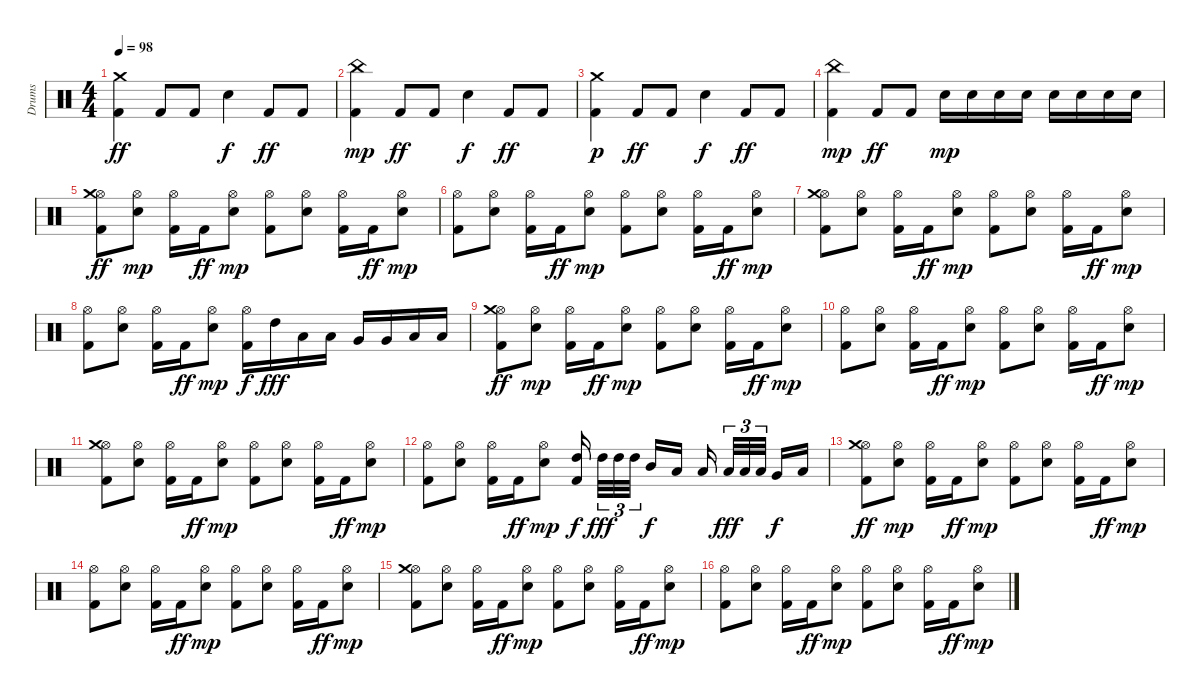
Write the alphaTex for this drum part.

\track ("Drums" "Drums") {instrument percussion}
\staff {score}
\articulation defaults
\ts (4 4)
\tempo 98
\clef neutral
\ks c
("Kick (hit) 2" "Crash medium (hit)").4{dy ff} "Kick (hit) 2".8 "Kick (hit) 2".8 "Snare (hit) 2".4{dy f} "Kick (hit) 2".8{dy ff} "Kick (hit) 2".8 |
("Kick (hit) 2" "China (hit)").4{dy mp} "Kick (hit) 2".8{dy ff} "Kick (hit) 2".8 "Snare (hit) 2".4{dy f} "Kick (hit) 2".8{dy ff} "Kick (hit) 2".8 |
("Kick (hit) 2" "Crash medium (hit)").4{dy p} "Kick (hit) 2".8{dy ff} "Kick (hit) 2".8 "Snare (hit) 2".4{dy f} "Kick (hit) 2".8{dy ff} "Kick (hit) 2".8 |
("Kick (hit) 2" "China (hit)").4{dy mp} "Kick (hit) 2".8{dy ff} "Kick (hit) 2".8 "Snare (hit) 2".16{dy mp} "Snare (hit) 2".16 "Snare (hit) 2".16 "Snare (hit) 2".16 "Snare (hit) 2".16 "Snare (hit) 2".16 "Snare (hit) 2".16 "Snare (hit) 2".16 |
("Kick (hit) 2" "Hi-Hat (open)" "Crash medium (hit)").8{dy ff} ("Hi-Hat (open)" "Snare (hit) 2").8{dy mp} ("Kick (hit) 2" "Hi-Hat (open)").16 "Kick (hit) 2".16{dy ff} ("Hi-Hat (open)" "Snare (hit) 2").8{dy mp} ("Kick (hit) 2" "Hi-Hat (open)").8 ("Hi-Hat (open)" "Snare (hit) 2").8 ("Kick (hit) 2" "Hi-Hat (open)").16 "Kick (hit) 2".16{dy ff} ("Hi-Hat (open)" "Snare (hit) 2").8{dy mp} |
("Kick (hit) 2" "Hi-Hat (open)").8 ("Hi-Hat (open)" "Snare (hit) 2").8 ("Kick (hit) 2" "Hi-Hat (open)").16 "Kick (hit) 2".16{dy ff} ("Hi-Hat (open)" "Snare (hit) 2").8{dy mp} ("Kick (hit) 2" "Hi-Hat (open)").8 ("Hi-Hat (open)" "Snare (hit) 2").8 ("Kick (hit) 2" "Hi-Hat (open)").16 "Kick (hit) 2".16{dy ff} ("Hi-Hat (open)" "Snare (hit) 2").8{dy mp} |
("Kick (hit) 2" "Hi-Hat (open)" "Crash medium (hit)").8 ("Hi-Hat (open)" "Snare (hit) 2").8 ("Kick (hit) 2" "Hi-Hat (open)").16 "Kick (hit) 2".16{dy ff} ("Hi-Hat (open)" "Snare (hit) 2").8{dy mp} ("Kick (hit) 2" "Hi-Hat (open)").8 ("Hi-Hat (open)" "Snare (hit) 2").8 ("Kick (hit) 2" "Hi-Hat (open)").16 "Kick (hit) 2".16{dy ff} ("Hi-Hat (open)" "Snare (hit) 2").8{dy mp} |
("Kick (hit) 2" "Hi-Hat (open)").8 ("Hi-Hat (open)" "Snare (hit) 2").8 ("Kick (hit) 2" "Hi-Hat (open)").16 "Kick (hit) 2".16{dy ff} ("Hi-Hat (open)" "Snare (hit) 2").8{dy mp} ("Kick (hit) 2" "Hi-Hat (open)").16{dy f} "High Tom (hit)".16{dy fff} "Low Tom (hit)".16 "Low Tom (hit)".16 "Very Low Tom (hit)".16 "Very Low Tom (hit)".16 "Low Floor Tom (hit)".16 "Low Floor Tom (hit)".16 |
("Kick (hit) 2" "Hi-Hat (open)" "Crash medium (hit)").8{dy ff} ("Hi-Hat (open)" "Snare (hit) 2").8{dy mp} ("Kick (hit) 2" "Hi-Hat (open)").16 "Kick (hit) 2".16{dy ff} ("Hi-Hat (open)" "Snare (hit) 2").8{dy mp} ("Kick (hit) 2" "Hi-Hat (open)").8 ("Hi-Hat (open)" "Snare (hit) 2").8 ("Kick (hit) 2" "Hi-Hat (open)").16 "Kick (hit) 2".16{dy ff} ("Hi-Hat (open)" "Snare (hit) 2").8{dy mp} |
("Kick (hit) 2" "Hi-Hat (open)").8 ("Hi-Hat (open)" "Snare (hit) 2").8 ("Kick (hit) 2" "Hi-Hat (open)").16 "Kick (hit) 2".16{dy ff} ("Hi-Hat (open)" "Snare (hit) 2").8{dy mp} ("Kick (hit) 2" "Hi-Hat (open)").8 ("Hi-Hat (open)" "Snare (hit) 2").8 ("Kick (hit) 2" "Hi-Hat (open)").16 "Kick (hit) 2".16{dy ff} ("Hi-Hat (open)" "Snare (hit) 2").8{dy mp} |
("Kick (hit) 2" "Hi-Hat (open)" "Crash medium (hit)").8 ("Hi-Hat (open)" "Snare (hit) 2").8 ("Kick (hit) 2" "Hi-Hat (open)").16 "Kick (hit) 2".16{dy ff} ("Hi-Hat (open)" "Snare (hit) 2").8{dy mp} ("Kick (hit) 2" "Hi-Hat (open)").8 ("Hi-Hat (open)" "Snare (hit) 2").8 ("Kick (hit) 2" "Hi-Hat (open)").16 "Kick (hit) 2".16{dy ff} ("Hi-Hat (open)" "Snare (hit) 2").8{dy mp} |
("Kick (hit) 2" "Hi-Hat (open)").8 ("Hi-Hat (open)" "Snare (hit) 2").8 ("Kick (hit) 2" "Hi-Hat (open)").16 "Kick (hit) 2".16{dy ff} ("Hi-Hat (open)" "Snare (hit) 2").8{dy mp} ("Kick (hit) 2" "High Tom (hit)").16{dy f} "High Tom (hit)".32{tu (3 2) dy fff} "High Tom (hit)".32{tu (3 2)} "High Tom (hit)".32{tu (3 2)} "Mid Tom (hit)".16{dy f} "Low Tom (hit)".16 "Low Tom (hit)".16 "Low Tom (hit)".32{tu (3 2) dy fff} "Low Tom (hit)".32{tu (3 2)} "Low Tom (hit)".32{tu (3 2)} "Very Low Tom (hit)".16{dy f} "Low Floor Tom (hit)".16 |
("Kick (hit) 2" "Hi-Hat (open)" "Crash medium (hit)").8{dy ff} ("Hi-Hat (open)" "Snare (hit) 2").8{dy mp} ("Kick (hit) 2" "Hi-Hat (open)").16 "Kick (hit) 2".16{dy ff} ("Hi-Hat (open)" "Snare (hit) 2").8{dy mp} ("Kick (hit) 2" "Hi-Hat (open)").8 ("Hi-Hat (open)" "Snare (hit) 2").8 ("Kick (hit) 2" "Hi-Hat (open)").16 "Kick (hit) 2".16{dy ff} ("Hi-Hat (open)" "Snare (hit) 2").8{dy mp} |
("Kick (hit) 2" "Hi-Hat (open)").8 ("Hi-Hat (open)" "Snare (hit) 2").8 ("Kick (hit) 2" "Hi-Hat (open)").16 "Kick (hit) 2".16{dy ff} ("Hi-Hat (open)" "Snare (hit) 2").8{dy mp} ("Kick (hit) 2" "Hi-Hat (open)").8 ("Hi-Hat (open)" "Snare (hit) 2").8 ("Kick (hit) 2" "Hi-Hat (open)").16 "Kick (hit) 2".16{dy ff} ("Hi-Hat (open)" "Snare (hit) 2").8{dy mp} |
("Kick (hit) 2" "Hi-Hat (open)" "Crash medium (hit)").8 ("Hi-Hat (open)" "Snare (hit) 2").8 ("Kick (hit) 2" "Hi-Hat (open)").16 "Kick (hit) 2".16{dy ff} ("Hi-Hat (open)" "Snare (hit) 2").8{dy mp} ("Kick (hit) 2" "Hi-Hat (open)").8 ("Hi-Hat (open)" "Snare (hit) 2").8 ("Kick (hit) 2" "Hi-Hat (open)").16 "Kick (hit) 2".16{dy ff} ("Hi-Hat (open)" "Snare (hit) 2").8{dy mp} |
("Kick (hit) 2" "Hi-Hat (open)").8 ("Hi-Hat (open)" "Snare (hit) 2").8 ("Kick (hit) 2" "Hi-Hat (open)").16 "Kick (hit) 2".16{dy ff} ("Hi-Hat (open)" "Snare (hit) 2").8{dy mp} ("Kick (hit) 2" "Hi-Hat (open)").8 ("Hi-Hat (open)" "Snare (hit) 2").8 ("Kick (hit) 2" "Hi-Hat (open)").16 "Kick (hit) 2".16{dy ff} ("Hi-Hat (open)" "Snare (hit) 2").8{dy mp}
